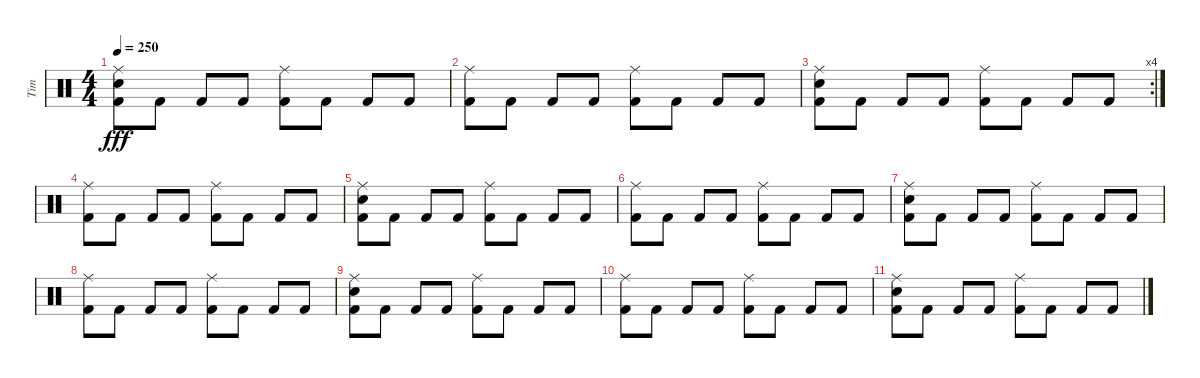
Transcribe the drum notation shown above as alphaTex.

\track ("Tim" "Tim") {instrument percussion}
\staff {score}
\articulation defaults
\ts (4 4)
\tempo 250
\clef neutral
\ks c
("Ride (middle)" "Electric Snare (hit)" "Kick (hit) 2").8{dy fff} "Kick (hit) 2".8 "Kick (hit) 2".8 "Kick (hit) 2".8 ("Ride (middle)" "Kick (hit) 2").8 "Kick (hit) 2".8 "Kick (hit) 2".8 "Kick (hit) 2".8 |
("Ride (middle)" "Kick (hit) 2").8 "Kick (hit) 2".8 "Kick (hit) 2".8 "Kick (hit) 2".8 ("Ride (middle)" "Kick (hit) 2").8 "Kick (hit) 2".8 "Kick (hit) 2".8 "Kick (hit) 2".8 |
\rc 4
("Ride (middle)" "Electric Snare (hit)" "Kick (hit) 2").8 "Kick (hit) 2".8 "Kick (hit) 2".8 "Kick (hit) 2".8 ("Ride (middle)" "Kick (hit) 2").8 "Kick (hit) 2".8 "Kick (hit) 2".8 "Kick (hit) 2".8 |
("Ride (middle)" "Kick (hit) 2").8 "Kick (hit) 2".8 "Kick (hit) 2".8 "Kick (hit) 2".8 ("Ride (middle)" "Kick (hit) 2").8 "Kick (hit) 2".8 "Kick (hit) 2".8 "Kick (hit) 2".8 |
("Ride (middle)" "Electric Snare (hit)" "Kick (hit) 2").8 "Kick (hit) 2".8 "Kick (hit) 2".8 "Kick (hit) 2".8 ("Ride (middle)" "Kick (hit) 2").8 "Kick (hit) 2".8 "Kick (hit) 2".8 "Kick (hit) 2".8 |
("Ride (middle)" "Kick (hit) 2").8 "Kick (hit) 2".8 "Kick (hit) 2".8 "Kick (hit) 2".8 ("Ride (middle)" "Kick (hit) 2").8 "Kick (hit) 2".8 "Kick (hit) 2".8 "Kick (hit) 2".8 |
("Ride (middle)" "Electric Snare (hit)" "Kick (hit) 2").8 "Kick (hit) 2".8 "Kick (hit) 2".8 "Kick (hit) 2".8 ("Ride (middle)" "Kick (hit) 2").8 "Kick (hit) 2".8 "Kick (hit) 2".8 "Kick (hit) 2".8 |
("Ride (middle)" "Kick (hit) 2").8 "Kick (hit) 2".8 "Kick (hit) 2".8 "Kick (hit) 2".8 ("Ride (middle)" "Kick (hit) 2").8 "Kick (hit) 2".8 "Kick (hit) 2".8 "Kick (hit) 2".8 |
("Ride (middle)" "Electric Snare (hit)" "Kick (hit) 2").8 "Kick (hit) 2".8 "Kick (hit) 2".8 "Kick (hit) 2".8 ("Ride (middle)" "Kick (hit) 2").8 "Kick (hit) 2".8 "Kick (hit) 2".8 "Kick (hit) 2".8 |
("Ride (middle)" "Kick (hit) 2").8 "Kick (hit) 2".8 "Kick (hit) 2".8 "Kick (hit) 2".8 ("Ride (middle)" "Kick (hit) 2").8 "Kick (hit) 2".8 "Kick (hit) 2".8 "Kick (hit) 2".8 |
("Ride (middle)" "Electric Snare (hit)" "Kick (hit) 2").8 "Kick (hit) 2".8 "Kick (hit) 2".8 "Kick (hit) 2".8 ("Ride (middle)" "Kick (hit) 2").8 "Kick (hit) 2".8 "Kick (hit) 2".8 "Kick (hit) 2".8
